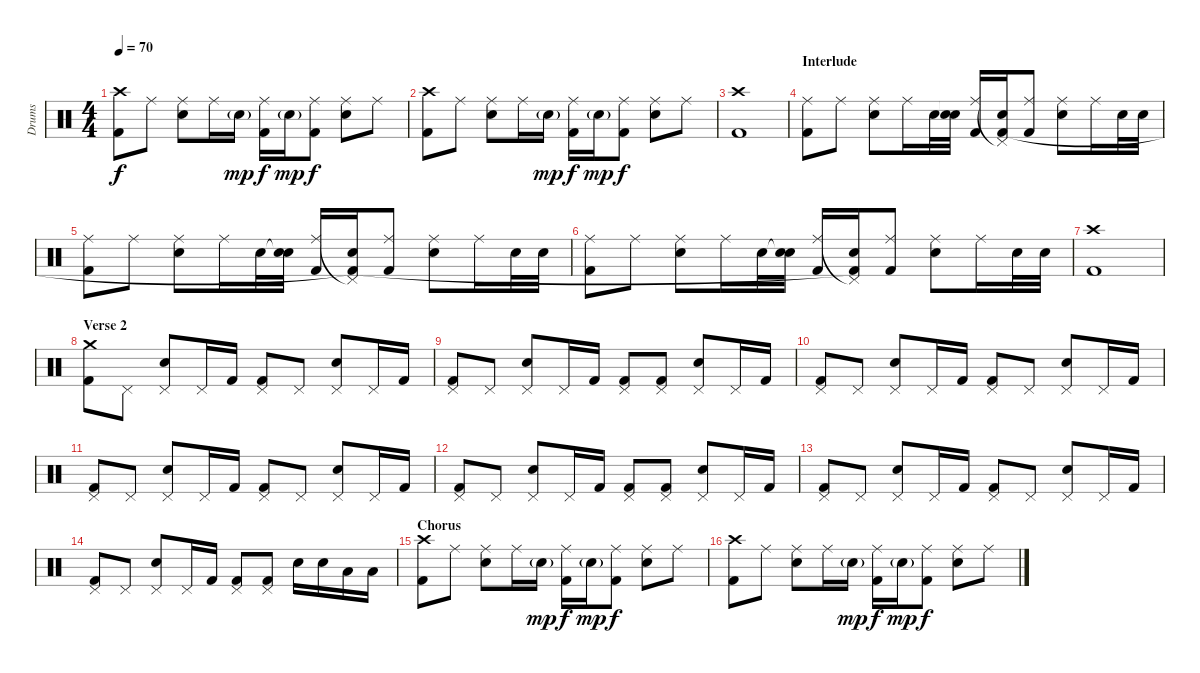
\track ("Drums" "Drums") {instrument percussion}
\staff {score}
\articulation defaults
\ts (4 4)
\tempo 70
\clef neutral
\ks c
("Crash high (hit)" "Kick (hit) 2").8{dy f} "Ride (middle)".8 ("Ride (middle)" "Electric Snare (hit)").8 "Ride (middle)".16 "Electric Snare (hit)"{g}.16{dy mp} ("Ride (middle)" "Kick (hit) 2").16{dy f} "Electric Snare (hit)"{g}.16{dy mp} ("Ride (middle)" "Kick (hit) 2").8{dy f} ("Ride (middle)" "Electric Snare (hit)").8 "Ride (middle)".8 |
("Crash high (hit)" "Kick (hit) 2").8 "Ride (middle)".8 ("Ride (middle)" "Electric Snare (hit)").8 "Ride (middle)".16 "Electric Snare (hit)"{g}.16{dy mp} ("Ride (middle)" "Kick (hit) 2").16{dy f} "Electric Snare (hit)"{g}.16{dy mp} ("Ride (middle)" "Kick (hit) 2").8{dy f} ("Ride (middle)" "Electric Snare (hit)").8 "Ride (middle)".8 |
("Crash high (hit)" "Kick (hit) 2").1 |
\section ("" "Interlude")
("Ride (middle)" "Kick (hit) 2").8 "Ride (middle)".8 ("Ride (middle)" "Electric Snare (hit)").8 "Ride (middle)".16 "Electric Snare (hit)".32 ("Snare (hit)"{t} "Electric Snare (hit)").32 ("Ride (middle)" "Kick (hit) 2").16 ("Pedal Hi-Hat (hit)"{t} "Electric Snare (hit)" "Kick (hit) 2").16 ("Ride (middle)" "Kick (hit) 2").8 ("Ride (middle)" "Electric Snare (hit)").8 "Ride (middle)".16 "Electric Snare (hit)".32 "Electric Snare (hit)".32 |
("Ride (middle)" "Kick (hit) 2").8 "Ride (middle)".8 ("Ride (middle)" "Electric Snare (hit)").8 "Ride (middle)".16 "Electric Snare (hit)".32 ("Snare (hit)"{t} "Electric Snare (hit)").32 ("Ride (middle)" "Kick (hit) 2").16 ("Pedal Hi-Hat (hit)"{t} "Electric Snare (hit)" "Kick (hit) 2"{t}).16 ("Ride (middle)" "Kick (hit) 2").8 ("Ride (middle)" "Electric Snare (hit)").8 "Ride (middle)".16 "Electric Snare (hit)".32 "Electric Snare (hit)".32 |
("Ride (middle)" "Kick (hit) 2").8 "Ride (middle)".8 ("Ride (middle)" "Electric Snare (hit)").8 "Ride (middle)".16 "Electric Snare (hit)".32 ("Snare (hit)"{t} "Electric Snare (hit)").32 ("Ride (middle)" "Kick (hit) 2").16 ("Pedal Hi-Hat (hit)"{t} "Electric Snare (hit)" "Kick (hit) 2"{t}).16 ("Ride (middle)" "Kick (hit) 2").8 ("Ride (middle)" "Electric Snare (hit)").8 "Ride (middle)".16 "Electric Snare (hit)".32 "Electric Snare (hit)".32 |
("Crash high (hit)" "Kick (hit) 2").1 |
\section ("" "Verse 2")
("Crash medium (hit)" "Kick (hit) 2").8 "Pedal Hi-Hat (hit)".8 ("Pedal Hi-Hat (hit)" "Electric Snare (hit)").8 "Pedal Hi-Hat (hit)".16 "Kick (hit) 2".16 ("Pedal Hi-Hat (hit)" "Kick (hit) 2").8 "Pedal Hi-Hat (hit)".8 ("Pedal Hi-Hat (hit)" "Electric Snare (hit)").8 "Pedal Hi-Hat (hit)".16 "Kick (hit) 2".16 |
("Pedal Hi-Hat (hit)" "Kick (hit) 2").8 "Pedal Hi-Hat (hit)".8 ("Pedal Hi-Hat (hit)" "Electric Snare (hit)").8 "Pedal Hi-Hat (hit)".16 "Kick (hit) 2".16 ("Pedal Hi-Hat (hit)" "Kick (hit) 2").8 ("Pedal Hi-Hat (hit)" "Kick (hit) 2").8 ("Pedal Hi-Hat (hit)" "Electric Snare (hit)").8 "Pedal Hi-Hat (hit)".16 "Kick (hit) 2".16 |
("Pedal Hi-Hat (hit)" "Kick (hit) 2").8 "Pedal Hi-Hat (hit)".8 ("Pedal Hi-Hat (hit)" "Electric Snare (hit)").8 "Pedal Hi-Hat (hit)".16 "Kick (hit) 2".16 ("Pedal Hi-Hat (hit)" "Kick (hit) 2").8 "Pedal Hi-Hat (hit)".8 ("Pedal Hi-Hat (hit)" "Electric Snare (hit)").8 "Pedal Hi-Hat (hit)".16 "Kick (hit) 2".16 |
("Pedal Hi-Hat (hit)" "Kick (hit) 2").8 "Pedal Hi-Hat (hit)".8 ("Pedal Hi-Hat (hit)" "Electric Snare (hit)").8 "Pedal Hi-Hat (hit)".16 "Kick (hit) 2".16 ("Pedal Hi-Hat (hit)" "Kick (hit) 2").8 "Pedal Hi-Hat (hit)".8 ("Pedal Hi-Hat (hit)" "Electric Snare (hit)").8 "Pedal Hi-Hat (hit)".16 "Kick (hit) 2".16 |
("Pedal Hi-Hat (hit)" "Kick (hit) 2").8 "Pedal Hi-Hat (hit)".8 ("Pedal Hi-Hat (hit)" "Electric Snare (hit)").8 "Pedal Hi-Hat (hit)".16 "Kick (hit) 2".16 ("Pedal Hi-Hat (hit)" "Kick (hit) 2").8 ("Pedal Hi-Hat (hit)" "Kick (hit) 2").8 ("Pedal Hi-Hat (hit)" "Electric Snare (hit)").8 "Pedal Hi-Hat (hit)".16 "Kick (hit) 2".16 |
("Pedal Hi-Hat (hit)" "Kick (hit) 2").8 "Pedal Hi-Hat (hit)".8 ("Pedal Hi-Hat (hit)" "Electric Snare (hit)").8 "Pedal Hi-Hat (hit)".16 "Kick (hit) 2".16 ("Pedal Hi-Hat (hit)" "Kick (hit) 2").8 "Pedal Hi-Hat (hit)".8 ("Pedal Hi-Hat (hit)" "Electric Snare (hit)").8 "Pedal Hi-Hat (hit)".16 "Kick (hit) 2".16 |
("Pedal Hi-Hat (hit)" "Kick (hit) 2").8 "Pedal Hi-Hat (hit)".8 ("Pedal Hi-Hat (hit)" "Electric Snare (hit)").8 "Pedal Hi-Hat (hit)".16 "Kick (hit) 2".16 ("Pedal Hi-Hat (hit)" "Kick (hit) 2").8 ("Pedal Hi-Hat (hit)" "Kick (hit) 2").8 "Electric Snare (hit)".16 "Electric Snare (hit)".16 "Low Tom (hit)".16 "Low Tom (hit)".16 |
\section ("" "Chorus")
("Crash high (hit)" "Kick (hit) 2").8 "Ride (middle)".8 ("Ride (middle)" "Electric Snare (hit)").8 "Ride (middle)".16 "Electric Snare (hit)"{g}.16{dy mp} ("Ride (middle)" "Kick (hit) 2").16{dy f} "Electric Snare (hit)"{g}.16{dy mp} ("Ride (middle)" "Kick (hit) 2").8{dy f} ("Ride (middle)" "Electric Snare (hit)").8 "Ride (middle)".8 |
("Crash high (hit)" "Kick (hit) 2").8 "Ride (middle)".8 ("Ride (middle)" "Electric Snare (hit)").8 "Ride (middle)".16 "Electric Snare (hit)"{g}.16{dy mp} ("Ride (middle)" "Kick (hit) 2").16{dy f} "Electric Snare (hit)"{g}.16{dy mp} ("Ride (middle)" "Kick (hit) 2").8{dy f} ("Ride (middle)" "Electric Snare (hit)").8 "Ride (middle)".8
